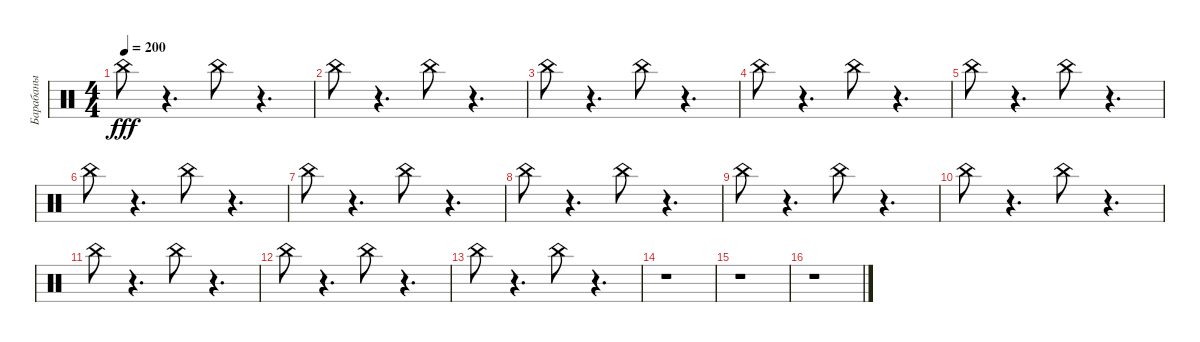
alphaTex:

\track ("Барабаны" "Барабаны") {instrument percussion}
\staff {score}
\articulation defaults
\ts (4 4)
\tempo 200
\clef neutral
\ks c "China (hit)".8{dy fff}
r.4{d} "China (hit)".8 r.4{d} |
"China (hit)".8 r.4{d} "China (hit)".8 r.4{d} |
"China (hit)".8 r.4{d} "China (hit)".8 r.4{d} |
"China (hit)".8 r.4{d} "China (hit)".8 r.4{d} |
"China (hit)".8 r.4{d} "China (hit)".8 r.4{d} |
"China (hit)".8 r.4{d} "China (hit)".8 r.4{d} |
"China (hit)".8 r.4{d} "China (hit)".8 r.4{d} |
"China (hit)".8 r.4{d} "China (hit)".8 r.4{d} |
"China (hit)".8 r.4{d} "China (hit)".8 r.4{d} |
"China (hit)".8 r.4{d} "China (hit)".8 r.4{d} |
"China (hit)".8 r.4{d} "China (hit)".8 r.4{d} |
"China (hit)".8 r.4{d} "China (hit)".8 r.4{d} |
"China (hit)".8 r.4{d} "China (hit)".8 r.4{d} |
r.1 |
r.1 |
r.1
